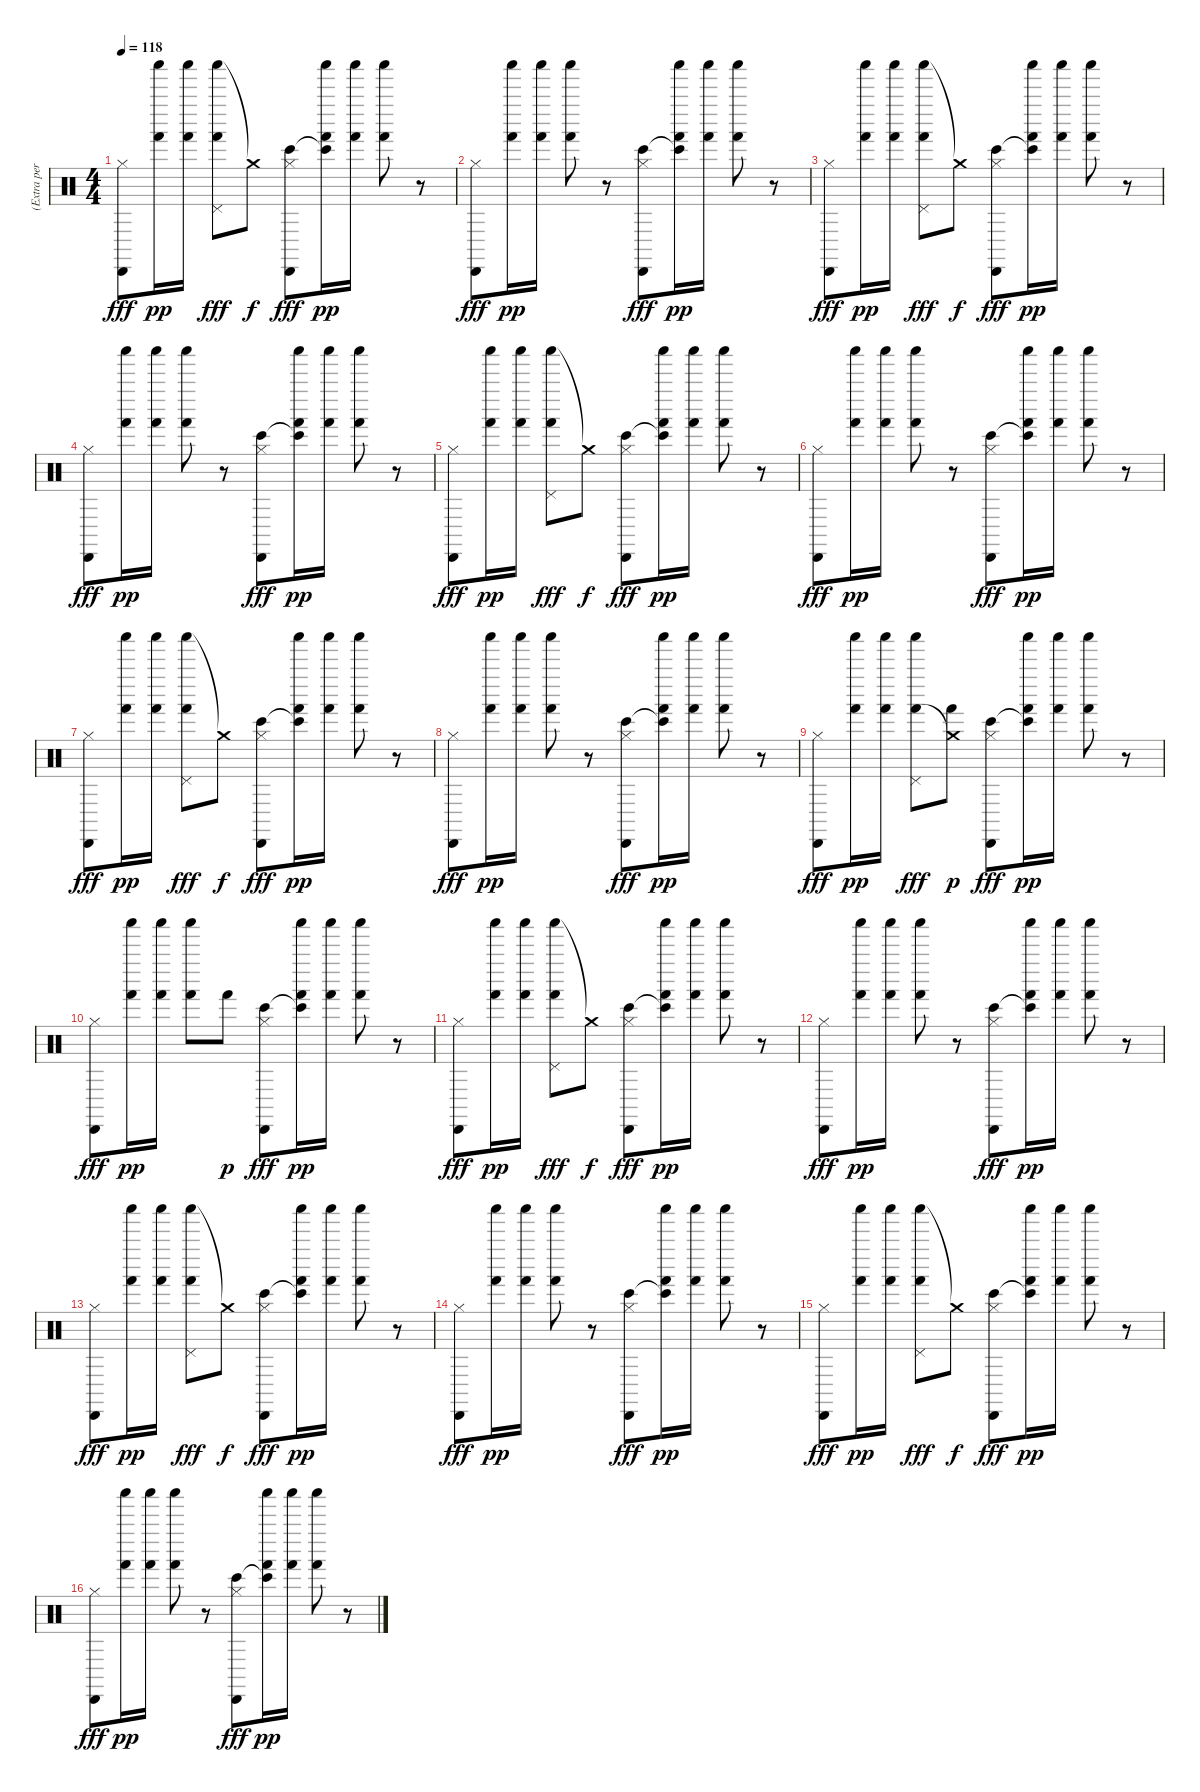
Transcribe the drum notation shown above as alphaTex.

\track ("(Extra percussion)Eddie Fisher" "(Extra per") {instrument percussion}
\staff {score}
\articulation defaults
\ts (4 4)
\tempo 118
\clef neutral
\ks c
("Cabasa (hit)" "Hi-Hat (closed)").8{dy fff} ("Shaker (hit)" "Hand (hit)").16{dy pp} ("Shaker (hit)" "Hand (hit)").16 ("Shaker (hit)" "Hand (hit)" "Pedal Hi-Hat (hit)").8{dy fff} "Crash medium (hit)"{t}.8{dy f} ("Cabasa (hit)" "Hi-Hat (closed)" "Bongo High (hit)").8{dy fff} ("Shaker (hit)" "Hand (hit)" "Bongo High (hit)"{t}).16{dy pp} ("Shaker (hit)" "Hand (hit)").16 ("Shaker (hit)" "Hand (hit)").8 r.8 |
("Cabasa (hit)" "Hi-Hat (closed)").8{dy fff} ("Shaker (hit)" "Hand (hit)").16{dy pp} ("Shaker (hit)" "Hand (hit)").16 ("Shaker (hit)" "Hand (hit)").8 r.8 ("Cabasa (hit)" "Hi-Hat (closed)" "Bongo High (hit)").8{dy fff} ("Shaker (hit)" "Hand (hit)" "Bongo High (hit)"{t}).16{dy pp} ("Shaker (hit)" "Hand (hit)").16 ("Shaker (hit)" "Hand (hit)").8 r.8 |
("Cabasa (hit)" "Hi-Hat (closed)").8{dy fff} ("Shaker (hit)" "Hand (hit)").16{dy pp} ("Shaker (hit)" "Hand (hit)").16 ("Shaker (hit)" "Hand (hit)" "Pedal Hi-Hat (hit)").8{dy fff} "Crash medium (hit)"{t}.8{dy f} ("Cabasa (hit)" "Hi-Hat (closed)" "Bongo High (hit)").8{dy fff} ("Shaker (hit)" "Hand (hit)" "Bongo High (hit)"{t}).16{dy pp} ("Shaker (hit)" "Hand (hit)").16 ("Shaker (hit)" "Hand (hit)").8 r.8 |
("Cabasa (hit)" "Hi-Hat (closed)").8{dy fff} ("Shaker (hit)" "Hand (hit)").16{dy pp} ("Shaker (hit)" "Hand (hit)").16 ("Shaker (hit)" "Hand (hit)").8 r.8 ("Cabasa (hit)" "Hi-Hat (closed)" "Bongo High (hit)").8{dy fff} ("Shaker (hit)" "Hand (hit)" "Bongo High (hit)"{t}).16{dy pp} ("Shaker (hit)" "Hand (hit)").16 ("Shaker (hit)" "Hand (hit)").8 r.8 |
("Cabasa (hit)" "Hi-Hat (closed)").8{dy fff} ("Shaker (hit)" "Hand (hit)").16{dy pp} ("Shaker (hit)" "Hand (hit)").16 ("Shaker (hit)" "Hand (hit)" "Pedal Hi-Hat (hit)").8{dy fff} "Crash medium (hit)"{t}.8{dy f} ("Cabasa (hit)" "Hi-Hat (closed)" "Bongo High (hit)").8{dy fff} ("Shaker (hit)" "Hand (hit)" "Bongo High (hit)"{t}).16{dy pp} ("Shaker (hit)" "Hand (hit)").16 ("Shaker (hit)" "Hand (hit)").8 r.8 |
("Cabasa (hit)" "Hi-Hat (closed)").8{dy fff} ("Shaker (hit)" "Hand (hit)").16{dy pp} ("Shaker (hit)" "Hand (hit)").16 ("Shaker (hit)" "Hand (hit)").8 r.8 ("Cabasa (hit)" "Hi-Hat (closed)" "Bongo High (hit)").8{dy fff} ("Shaker (hit)" "Hand (hit)" "Bongo High (hit)"{t}).16{dy pp} ("Shaker (hit)" "Hand (hit)").16 ("Shaker (hit)" "Hand (hit)").8 r.8 |
("Cabasa (hit)" "Hi-Hat (closed)").8{dy fff} ("Shaker (hit)" "Hand (hit)").16{dy pp} ("Shaker (hit)" "Hand (hit)").16 ("Shaker (hit)" "Hand (hit)" "Pedal Hi-Hat (hit)").8{dy fff} "Crash medium (hit)"{t}.8{dy f} ("Cabasa (hit)" "Hi-Hat (closed)" "Bongo High (hit)").8{dy fff} ("Shaker (hit)" "Hand (hit)" "Bongo High (hit)"{t}).16{dy pp} ("Shaker (hit)" "Hand (hit)").16 ("Shaker (hit)" "Hand (hit)").8 r.8 |
("Cabasa (hit)" "Hi-Hat (closed)").8{dy fff} ("Shaker (hit)" "Hand (hit)").16{dy pp} ("Shaker (hit)" "Hand (hit)").16 ("Shaker (hit)" "Hand (hit)").8 r.8 ("Cabasa (hit)" "Hi-Hat (closed)" "Bongo High (hit)").8{dy fff} ("Shaker (hit)" "Hand (hit)" "Bongo High (hit)"{t}).16{dy pp} ("Shaker (hit)" "Hand (hit)").16 ("Shaker (hit)" "Hand (hit)").8 r.8 |
("Cabasa (hit)" "Hi-Hat (closed)").8{dy fff} ("Shaker (hit)" "Hand (hit)").16{dy pp} ("Shaker (hit)" "Hand (hit)").16 ("Shaker (hit)" "Hand (hit)" "Pedal Hi-Hat (hit)").8{dy fff} ("Hand (hit)" "Crash medium (hit)"{t}).8{dy p} ("Cabasa (hit)" "Hi-Hat (closed)" "Bongo High (hit)").8{dy fff} ("Shaker (hit)" "Hand (hit)" "Bongo High (hit)"{t}).16{dy pp} ("Shaker (hit)" "Hand (hit)").16 ("Shaker (hit)" "Hand (hit)").8 r.8 |
("Cabasa (hit)" "Hi-Hat (closed)").8{dy fff} ("Shaker (hit)" "Hand (hit)").16{dy pp} ("Shaker (hit)" "Hand (hit)").16 ("Shaker (hit)" "Hand (hit)").8 "Hand (hit)".8{dy p} ("Cabasa (hit)" "Hi-Hat (closed)" "Bongo High (hit)").8{dy fff} ("Shaker (hit)" "Hand (hit)" "Bongo High (hit)"{t}).16{dy pp} ("Shaker (hit)" "Hand (hit)").16 ("Shaker (hit)" "Hand (hit)").8 r.8 |
("Cabasa (hit)" "Hi-Hat (closed)").8{dy fff} ("Shaker (hit)" "Hand (hit)").16{dy pp} ("Shaker (hit)" "Hand (hit)").16 ("Shaker (hit)" "Hand (hit)" "Pedal Hi-Hat (hit)").8{dy fff} "Crash medium (hit)"{t}.8{dy f} ("Cabasa (hit)" "Hi-Hat (closed)" "Bongo High (hit)").8{dy fff} ("Shaker (hit)" "Hand (hit)" "Bongo High (hit)"{t}).16{dy pp} ("Shaker (hit)" "Hand (hit)").16 ("Shaker (hit)" "Hand (hit)").8 r.8 |
("Cabasa (hit)" "Hi-Hat (closed)").8{dy fff} ("Shaker (hit)" "Hand (hit)").16{dy pp} ("Shaker (hit)" "Hand (hit)").16 ("Shaker (hit)" "Hand (hit)").8 r.8 ("Cabasa (hit)" "Hi-Hat (closed)" "Bongo High (hit)").8{dy fff} ("Shaker (hit)" "Hand (hit)" "Bongo High (hit)"{t}).16{dy pp} ("Shaker (hit)" "Hand (hit)").16 ("Shaker (hit)" "Hand (hit)").8 r.8 |
("Cabasa (hit)" "Hi-Hat (closed)").8{dy fff} ("Shaker (hit)" "Hand (hit)").16{dy pp} ("Shaker (hit)" "Hand (hit)").16 ("Shaker (hit)" "Hand (hit)" "Pedal Hi-Hat (hit)").8{dy fff} "Crash medium (hit)"{t}.8{dy f} ("Cabasa (hit)" "Hi-Hat (closed)" "Bongo High (hit)").8{dy fff} ("Shaker (hit)" "Hand (hit)" "Bongo High (hit)"{t}).16{dy pp} ("Shaker (hit)" "Hand (hit)").16 ("Shaker (hit)" "Hand (hit)").8 r.8 |
("Cabasa (hit)" "Hi-Hat (closed)").8{dy fff} ("Shaker (hit)" "Hand (hit)").16{dy pp} ("Shaker (hit)" "Hand (hit)").16 ("Shaker (hit)" "Hand (hit)").8 r.8 ("Cabasa (hit)" "Hi-Hat (closed)" "Bongo High (hit)").8{dy fff} ("Shaker (hit)" "Hand (hit)" "Bongo High (hit)"{t}).16{dy pp} ("Shaker (hit)" "Hand (hit)").16 ("Shaker (hit)" "Hand (hit)").8 r.8 |
("Cabasa (hit)" "Hi-Hat (closed)").8{dy fff} ("Shaker (hit)" "Hand (hit)").16{dy pp} ("Shaker (hit)" "Hand (hit)").16 ("Shaker (hit)" "Hand (hit)" "Pedal Hi-Hat (hit)").8{dy fff} "Crash medium (hit)"{t}.8{dy f} ("Cabasa (hit)" "Hi-Hat (closed)" "Bongo High (hit)").8{dy fff} ("Shaker (hit)" "Hand (hit)" "Bongo High (hit)"{t}).16{dy pp} ("Shaker (hit)" "Hand (hit)").16 ("Shaker (hit)" "Hand (hit)").8 r.8 |
("Cabasa (hit)" "Hi-Hat (closed)").8{dy fff} ("Shaker (hit)" "Hand (hit)").16{dy pp} ("Shaker (hit)" "Hand (hit)").16 ("Shaker (hit)" "Hand (hit)").8 r.8 ("Cabasa (hit)" "Hi-Hat (closed)" "Bongo High (hit)").8{dy fff} ("Shaker (hit)" "Hand (hit)" "Bongo High (hit)"{t}).16{dy pp} ("Shaker (hit)" "Hand (hit)").16 ("Shaker (hit)" "Hand (hit)").8 r.8
